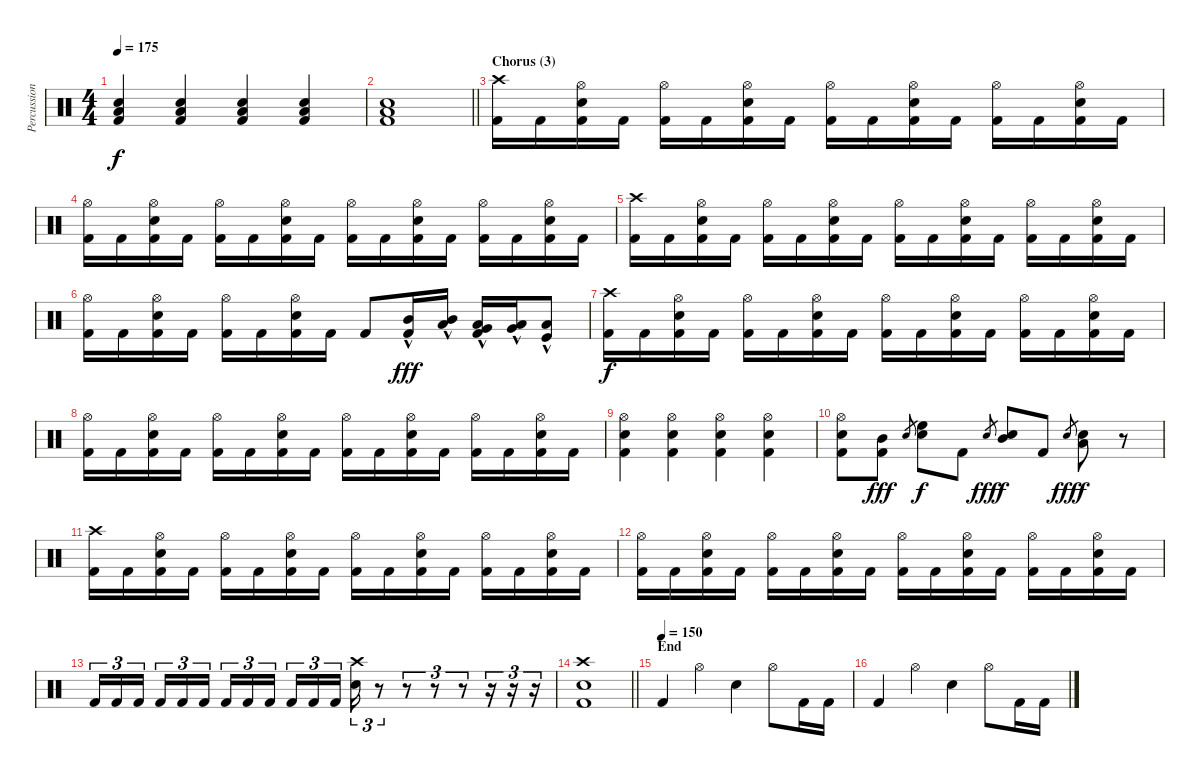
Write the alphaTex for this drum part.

\track ("Percussions" "Percussion") {instrument percussion}
\staff {score}
\articulation defaults
\ts (4 4)
\tempo 175
\clef neutral
\ks c
("Snare (hit) 2" "Low Floor Tom (hit)" "Kick (hit) 2").4{dy f} ("Snare (hit) 2" "Low Floor Tom (hit)" "Kick (hit) 2").4 ("Snare (hit) 2" "Low Floor Tom (hit)" "Kick (hit) 2").4 ("Snare (hit) 2" "Low Floor Tom (hit)" "Kick (hit) 2").4 |
\barLineRight lightlight
("Snare (hit) 2" "Low Floor Tom (hit)" "Kick (hit) 2").1 |
\section ("" "Chorus (3)")
("Crash high (hit)" "Kick (hit) 2").16 "Kick (hit) 2".16 ("Hi-Hat (open)" "Snare (hit) 2" "Kick (hit) 2").16 "Kick (hit) 2".16 ("Hi-Hat (open)" "Kick (hit) 2").16 "Kick (hit) 2".16 ("Hi-Hat (open)" "Snare (hit) 2" "Kick (hit) 2").16 "Kick (hit) 2".16 ("Hi-Hat (open)" "Kick (hit) 2").16 "Kick (hit) 2".16 ("Hi-Hat (open)" "Snare (hit) 2" "Kick (hit) 2").16 "Kick (hit) 2".16 ("Hi-Hat (open)" "Kick (hit) 2").16 "Kick (hit) 2".16 ("Hi-Hat (open)" "Snare (hit) 2" "Kick (hit) 2").16 "Kick (hit) 2".16 |
("Hi-Hat (open)" "Kick (hit) 2").16 "Kick (hit) 2".16 ("Hi-Hat (open)" "Snare (hit) 2" "Kick (hit) 2").16 "Kick (hit) 2".16 ("Hi-Hat (open)" "Kick (hit) 2").16 "Kick (hit) 2".16 ("Hi-Hat (open)" "Snare (hit) 2" "Kick (hit) 2").16 "Kick (hit) 2".16 ("Hi-Hat (open)" "Kick (hit) 2").16 "Kick (hit) 2".16 ("Hi-Hat (open)" "Snare (hit) 2" "Kick (hit) 2").16 "Kick (hit) 2".16 ("Hi-Hat (open)" "Kick (hit) 2").16 "Kick (hit) 2".16 ("Hi-Hat (open)" "Snare (hit) 2" "Kick (hit) 2").16 "Kick (hit) 2".16 |
("Crash high (hit)" "Kick (hit) 2").16 "Kick (hit) 2".16 ("Hi-Hat (open)" "Snare (hit) 2" "Kick (hit) 2").16 "Kick (hit) 2".16 ("Hi-Hat (open)" "Kick (hit) 2").16 "Kick (hit) 2".16 ("Hi-Hat (open)" "Snare (hit) 2" "Kick (hit) 2").16 "Kick (hit) 2".16 ("Hi-Hat (open)" "Kick (hit) 2").16 "Kick (hit) 2".16 ("Hi-Hat (open)" "Snare (hit) 2" "Kick (hit) 2").16 "Kick (hit) 2".16 ("Hi-Hat (open)" "Kick (hit) 2").16 "Kick (hit) 2".16 ("Hi-Hat (open)" "Snare (hit) 2" "Kick (hit) 2").16 "Kick (hit) 2".16 |
("Hi-Hat (open)" "Kick (hit) 2").16 "Kick (hit) 2".16 ("Hi-Hat (open)" "Snare (hit) 2" "Kick (hit) 2").16 "Kick (hit) 2".16 ("Hi-Hat (open)" "Kick (hit) 2").16 "Kick (hit) 2".16 ("Hi-Hat (open)" "Snare (hit) 2" "Kick (hit) 2").16 "Kick (hit) 2".16 "Kick (hit) 2".8 ("Mid Tom (hit)"{hac} "Kick (hit) 2").16{dy fff} ("Mid Tom (hit)"{hac} "Low Tom (hit)"{hac}).16 ("Low Tom (hit)"{hac} "Very Low Tom (hit)"{hac} "Kick (hit) 2").16 ("Very Low Tom (hit)"{hac} "Low Floor Tom (hit)"{hac}).16 ("Low Floor Tom (hit)"{hac} "Kick (hit)"{hac}).8 |
("Crash high (hit)" "Kick (hit) 2").16{dy f} "Kick (hit) 2".16 ("Hi-Hat (open)" "Snare (hit) 2" "Kick (hit) 2").16 "Kick (hit) 2".16 ("Hi-Hat (open)" "Kick (hit) 2").16 "Kick (hit) 2".16 ("Hi-Hat (open)" "Snare (hit) 2" "Kick (hit) 2").16 "Kick (hit) 2".16 ("Hi-Hat (open)" "Kick (hit) 2").16 "Kick (hit) 2".16 ("Hi-Hat (open)" "Snare (hit) 2" "Kick (hit) 2").16 "Kick (hit) 2".16 ("Hi-Hat (open)" "Kick (hit) 2").16 "Kick (hit) 2".16 ("Hi-Hat (open)" "Snare (hit) 2" "Kick (hit) 2").16 "Kick (hit) 2".16 |
("Hi-Hat (open)" "Kick (hit) 2").16 "Kick (hit) 2".16 ("Hi-Hat (open)" "Snare (hit) 2" "Kick (hit) 2").16 "Kick (hit) 2".16 ("Hi-Hat (open)" "Kick (hit) 2").16 "Kick (hit) 2".16 ("Hi-Hat (open)" "Snare (hit) 2" "Kick (hit) 2").16 "Kick (hit) 2".16 ("Hi-Hat (open)" "Kick (hit) 2").16 "Kick (hit) 2".16 ("Hi-Hat (open)" "Snare (hit) 2" "Kick (hit) 2").16 "Kick (hit) 2".16 ("Hi-Hat (open)" "Kick (hit) 2").16 "Kick (hit) 2".16 ("Hi-Hat (open)" "Snare (hit) 2" "Kick (hit) 2").16 "Kick (hit) 2".16 |
("Hi-Hat (open)" "Snare (hit) 2" "Kick (hit) 2").4 ("Hi-Hat (open)" "Snare (hit) 2" "Kick (hit) 2").4 ("Hi-Hat (open)" "Snare (hit) 2" "Kick (hit) 2").4 ("Hi-Hat (open)" "Snare (hit) 2" "Kick (hit) 2").4 |
("Hi-Hat (open)" "Snare (hit) 2" "Kick (hit) 2").8 ("Mid Tom (hit)" "Kick (hit) 2").8{dy fff} "Snare (hit) 2".8{gr} ("High Floor Tom (hit)" "Snare (hit) 2").8{dy f} "Kick (hit) 2".8 "Snare (hit) 2".8{gr dy fff} ("Mid Tom (hit)" "Snare (hit) 2").8{dy f} "Kick (hit) 2".8 "Snare (hit) 2".8{gr dy fff} ("Low Tom (hit)" "Snare (hit) 2").8{dy f} r.8 |
("Crash high (hit)" "Kick (hit) 2").16 "Kick (hit) 2".16 ("Hi-Hat (open)" "Snare (hit) 2" "Kick (hit) 2").16 "Kick (hit) 2".16 ("Hi-Hat (open)" "Kick (hit) 2").16 "Kick (hit) 2".16 ("Hi-Hat (open)" "Snare (hit) 2" "Kick (hit) 2").16 "Kick (hit) 2".16 ("Hi-Hat (open)" "Kick (hit) 2").16 "Kick (hit) 2".16 ("Hi-Hat (open)" "Snare (hit) 2" "Kick (hit) 2").16 "Kick (hit) 2".16 ("Hi-Hat (open)" "Kick (hit) 2").16 "Kick (hit) 2".16 ("Hi-Hat (open)" "Snare (hit) 2" "Kick (hit) 2").16 "Kick (hit) 2".16 |
("Hi-Hat (open)" "Kick (hit) 2").16 "Kick (hit) 2".16 ("Hi-Hat (open)" "Snare (hit) 2" "Kick (hit) 2").16 "Kick (hit) 2".16 ("Hi-Hat (open)" "Kick (hit) 2").16 "Kick (hit) 2".16 ("Hi-Hat (open)" "Snare (hit) 2" "Kick (hit) 2").16 "Kick (hit) 2".16 ("Hi-Hat (open)" "Kick (hit) 2").16 "Kick (hit) 2".16 ("Hi-Hat (open)" "Snare (hit) 2" "Kick (hit) 2").16 "Kick (hit) 2".16 ("Hi-Hat (open)" "Kick (hit) 2").16 "Kick (hit) 2".16 ("Hi-Hat (open)" "Snare (hit) 2" "Kick (hit) 2").16 "Kick (hit) 2".16 |
"Kick (hit) 2".16{tu (3 2)} "Kick (hit) 2".16{tu (3 2)} "Kick (hit) 2".16{tu (3 2) beam splitsecondary} "Kick (hit) 2".16{tu (3 2)} "Kick (hit) 2".16{tu (3 2)} "Kick (hit) 2".16{tu (3 2)} "Kick (hit) 2".16{tu (3 2)} "Kick (hit) 2".16{tu (3 2)} "Kick (hit) 2".16{tu (3 2) beam splitsecondary} "Kick (hit) 2".16{tu (3 2)} "Kick (hit) 2".16{tu (3 2)} "Kick (hit) 2".16{tu (3 2)} ("Crash high (hit)" "Snare (hit) 2").16{tu (3 2)} r.8{tu (3 2)} r.8{tu (3 2)} r.8{tu (3 2)} r.8{tu (3 2)} r.16{tu (3 2)} r.16{tu (3 2)} r.16{tu (3 2)} |
\barLineRight lightlight
("Crash high (hit)" "Snare (hit) 2" "Kick (hit) 2").1 |
\section ("" "End")
\tempo (150)
"Kick (hit) 2".4 "Hi-Hat (open)".4 "Snare (hit) 2".4 "Hi-Hat (open)".8 "Kick (hit) 2".16 "Kick (hit) 2".16 |
"Kick (hit) 2".4 "Hi-Hat (open)".4 "Snare (hit) 2".4 "Hi-Hat (open)".8 "Kick (hit) 2".16 "Kick (hit) 2".16
